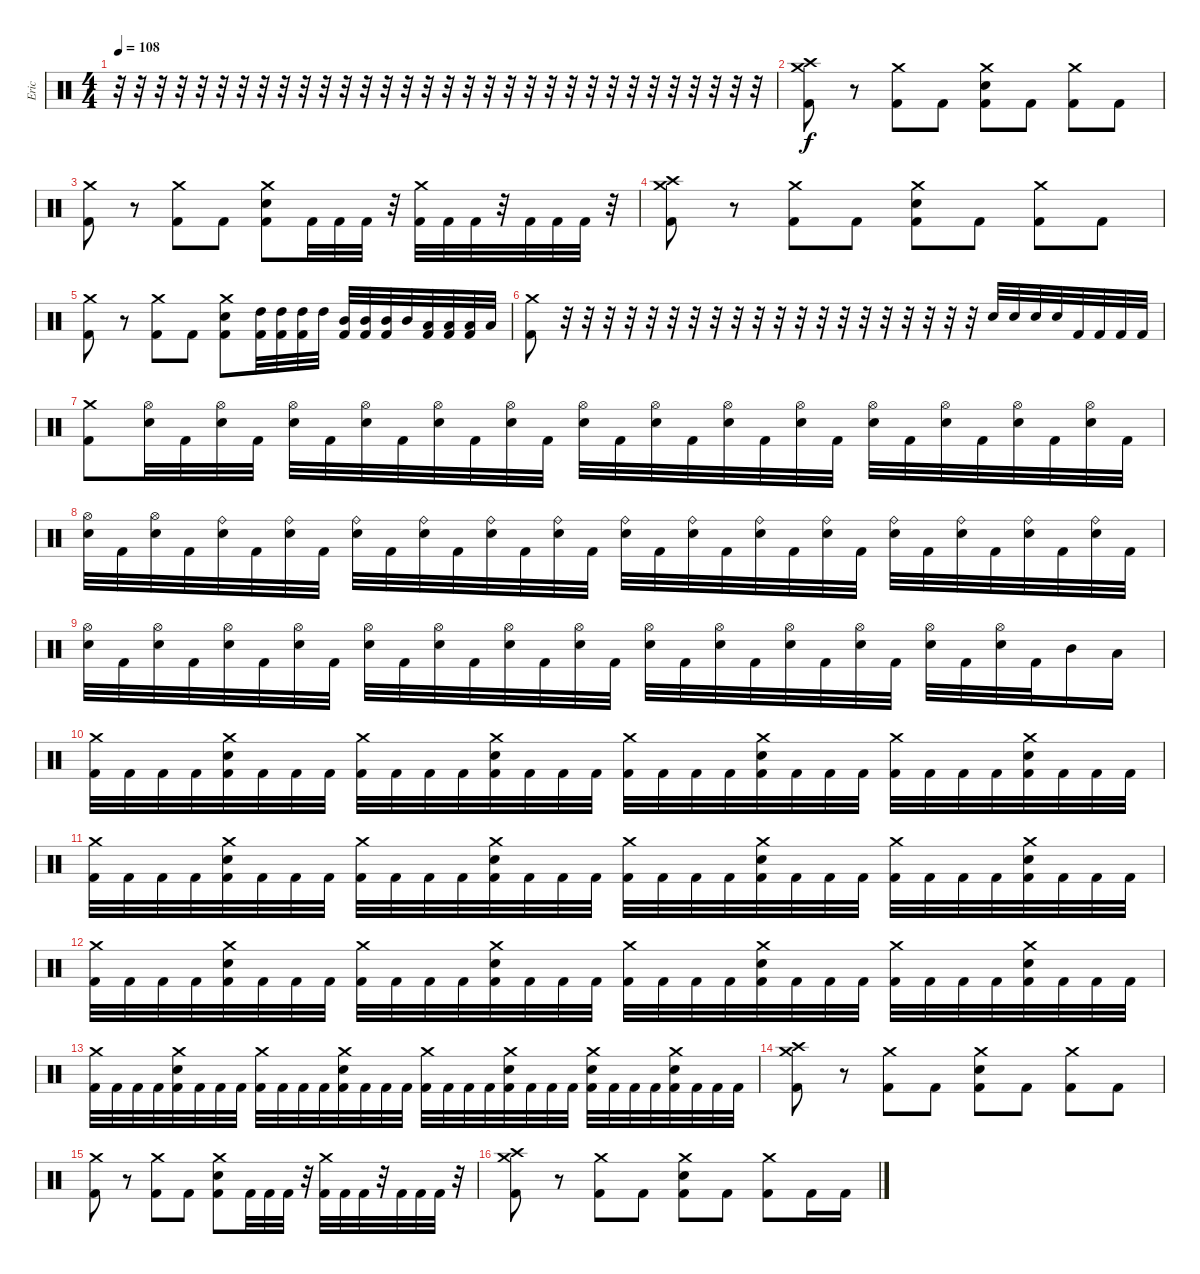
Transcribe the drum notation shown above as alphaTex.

\track ("Eric" "Eric") {instrument percussion}
\staff {score}
\articulation defaults
\ts (4 4)
\tempo 108
\clef neutral
\ks c
r.32{dy f} r.32 r.32 r.32 r.32 r.32 r.32 r.32 r.32 r.32 r.32 r.32 r.32 r.32 r.32 r.32 r.32 r.32 r.32 r.32 r.32 r.32 r.32 r.32 r.32 r.32 r.32 r.32 r.32 r.32 r.32 r.32 |
("Crash medium (hit)" "Crash high (hit)" "Kick (hit) 2").8 r.8 ("Crash medium (hit)" "Kick (hit) 2").8 "Kick (hit) 2".8 ("Crash medium (hit)" "Electric Snare (hit)" "Kick (hit) 2").8 "Kick (hit) 2".8 ("Crash medium (hit)" "Kick (hit) 2").8 "Kick (hit) 2".8 |
("Crash medium (hit)" "Kick (hit) 2").8 r.8 ("Crash medium (hit)" "Kick (hit) 2").8 "Kick (hit) 2".8 ("Crash medium (hit)" "Electric Snare (hit)" "Kick (hit) 2").8 "Kick (hit) 2".32 "Kick (hit) 2".32 "Kick (hit) 2".32 r.32 ("Crash medium (hit)" "Kick (hit) 2").32 "Kick (hit) 2".32 "Kick (hit) 2".32 r.32 "Kick (hit) 2".32 "Kick (hit) 2".32 "Kick (hit) 2".32 r.32 |
("Crash medium (hit)" "Crash high (hit)" "Kick (hit) 2").8 r.8 ("Crash medium (hit)" "Kick (hit) 2").8 "Kick (hit) 2".8 ("Crash medium (hit)" "Electric Snare (hit)" "Kick (hit) 2").8 "Kick (hit) 2".8 ("Crash medium (hit)" "Kick (hit) 2").8 "Kick (hit) 2".8 |
("Crash medium (hit)" "Kick (hit) 2").8 r.8 ("Crash medium (hit)" "Kick (hit) 2").8 "Kick (hit) 2".8 ("Crash medium (hit)" "Electric Snare (hit)" "Kick (hit) 2").8 ("High Tom (hit)" "Kick (hit) 2").32 ("High Tom (hit)" "Kick (hit) 2").32 ("High Tom (hit)" "Kick (hit) 2").32 "High Tom (hit)".32 ("Mid Tom (hit)" "Kick (hit) 2").32 ("Mid Tom (hit)" "Kick (hit) 2").32 ("Mid Tom (hit)" "Kick (hit) 2").32 "Mid Tom (hit)".32 ("Low Tom (hit)" "Kick (hit) 2").32 ("Low Tom (hit)" "Kick (hit) 2").32 ("Low Tom (hit)" "Kick (hit) 2").32 "Low Tom (hit)".32 |
("Crash medium (hit)" "Kick (hit) 2").8 r.32 r.32 r.32 r.32 r.32 r.32 r.32 r.32 r.32 r.32 r.32 r.32 r.32 r.32 r.32 r.32 r.32 r.32 r.32 r.32 "Electric Snare (hit)".32 "Electric Snare (hit)".32 "Electric Snare (hit)".32 "Electric Snare (hit)".32 "Kick (hit) 2".32 "Kick (hit) 2".32 "Kick (hit) 2".32 "Kick (hit) 2".32 |
("Crash medium (hit)" "Kick (hit) 2").8 ("Hi-Hat (open)" "Electric Snare (hit)").32 "Kick (hit) 2".32 ("Hi-Hat (open)" "Electric Snare (hit)").32 "Kick (hit) 2".32 ("Hi-Hat (open)" "Electric Snare (hit)").32 "Kick (hit) 2".32 ("Hi-Hat (open)" "Electric Snare (hit)").32 "Kick (hit) 2".32 ("Hi-Hat (open)" "Electric Snare (hit)").32 "Kick (hit) 2".32 ("Hi-Hat (open)" "Electric Snare (hit)").32 "Kick (hit) 2".32 ("Hi-Hat (open)" "Electric Snare (hit)").32 "Kick (hit) 2".32 ("Hi-Hat (open)" "Electric Snare (hit)").32 "Kick (hit) 2".32 ("Hi-Hat (open)" "Electric Snare (hit)").32 "Kick (hit) 2".32 ("Hi-Hat (open)" "Electric Snare (hit)").32 "Kick (hit) 2".32 ("Hi-Hat (open)" "Electric Snare (hit)").32 "Kick (hit) 2".32 ("Hi-Hat (open)" "Electric Snare (hit)").32 "Kick (hit) 2".32 ("Hi-Hat (open)" "Electric Snare (hit)").32 "Kick (hit) 2".32 ("Hi-Hat (open)" "Electric Snare (hit)").32 "Kick (hit) 2".32 |
("Hi-Hat (open)" "Electric Snare (hit)").32 "Kick (hit) 2".32 ("Hi-Hat (open)" "Electric Snare (hit)").32 "Kick (hit) 2".32 ("Ride (bell)" "Electric Snare (hit)").32 "Kick (hit) 2".32 ("Ride (bell)" "Electric Snare (hit)").32 "Kick (hit) 2".32 ("Ride (bell)" "Electric Snare (hit)").32 "Kick (hit) 2".32 ("Ride (bell)" "Electric Snare (hit)").32 "Kick (hit) 2".32 ("Ride (bell)" "Electric Snare (hit)").32 "Kick (hit) 2".32 ("Ride (bell)" "Electric Snare (hit)").32 "Kick (hit) 2".32 ("Ride (bell)" "Electric Snare (hit)").32 "Kick (hit) 2".32 ("Ride (bell)" "Electric Snare (hit)").32 "Kick (hit) 2".32 ("Ride (bell)" "Electric Snare (hit)").32 "Kick (hit) 2".32 ("Ride (bell)" "Electric Snare (hit)").32 "Kick (hit) 2".32 ("Ride (bell)" "Electric Snare (hit)").32 "Kick (hit) 2".32 ("Ride (bell)" "Electric Snare (hit)").32 "Kick (hit) 2".32 ("Ride (bell)" "Electric Snare (hit)").32 "Kick (hit) 2".32 ("Ride (bell)" "Electric Snare (hit)").32 "Kick (hit) 2".32 |
("Hi-Hat (open)" "Electric Snare (hit)").32 "Kick (hit) 2".32 ("Hi-Hat (open)" "Electric Snare (hit)").32 "Kick (hit) 2".32 ("Hi-Hat (open)" "Electric Snare (hit)").32 "Kick (hit) 2".32 ("Hi-Hat (open)" "Electric Snare (hit)").32 "Kick (hit) 2".32 ("Hi-Hat (open)" "Electric Snare (hit)").32 "Kick (hit) 2".32 ("Hi-Hat (open)" "Electric Snare (hit)").32 "Kick (hit) 2".32 ("Hi-Hat (open)" "Electric Snare (hit)").32 "Kick (hit) 2".32 ("Hi-Hat (open)" "Electric Snare (hit)").32 "Kick (hit) 2".32 ("Hi-Hat (open)" "Electric Snare (hit)").32 "Kick (hit) 2".32 ("Hi-Hat (open)" "Electric Snare (hit)").32 "Kick (hit) 2".32 ("Hi-Hat (open)" "Electric Snare (hit)").32 "Kick (hit) 2".32 ("Hi-Hat (open)" "Electric Snare (hit)").32 "Kick (hit) 2".32 ("Hi-Hat (open)" "Electric Snare (hit)").32 "Kick (hit) 2".32 ("Hi-Hat (open)" "Electric Snare (hit)").32 "Kick (hit) 2".32 "Mid Tom (hit)".16 "Low Tom (hit)".16 |
("Crash medium (hit)" "Kick (hit) 2").32 "Kick (hit) 2".32 "Kick (hit) 2".32 "Kick (hit) 2".32 ("Crash medium (hit)" "Electric Snare (hit)" "Kick (hit) 2").32 "Kick (hit) 2".32 "Kick (hit) 2".32 "Kick (hit) 2".32 ("Crash medium (hit)" "Kick (hit) 2").32 "Kick (hit) 2".32 "Kick (hit) 2".32 "Kick (hit) 2".32 ("Crash medium (hit)" "Electric Snare (hit)" "Kick (hit) 2").32 "Kick (hit) 2".32 "Kick (hit) 2".32 "Kick (hit) 2".32 ("Crash medium (hit)" "Kick (hit) 2").32 "Kick (hit) 2".32 "Kick (hit) 2".32 "Kick (hit) 2".32 ("Crash medium (hit)" "Electric Snare (hit)" "Kick (hit) 2").32 "Kick (hit) 2".32 "Kick (hit) 2".32 "Kick (hit) 2".32 ("Crash medium (hit)" "Kick (hit) 2").32 "Kick (hit) 2".32 "Kick (hit) 2".32 "Kick (hit) 2".32 ("Crash medium (hit)" "Electric Snare (hit)" "Kick (hit) 2").32 "Kick (hit) 2".32 "Kick (hit) 2".32 "Kick (hit) 2".32 |
("Crash medium (hit)" "Kick (hit) 2").32 "Kick (hit) 2".32 "Kick (hit) 2".32 "Kick (hit) 2".32 ("Crash medium (hit)" "Electric Snare (hit)" "Kick (hit) 2").32 "Kick (hit) 2".32 "Kick (hit) 2".32 "Kick (hit) 2".32 ("Crash medium (hit)" "Kick (hit) 2").32 "Kick (hit) 2".32 "Kick (hit) 2".32 "Kick (hit) 2".32 ("Crash medium (hit)" "Electric Snare (hit)" "Kick (hit) 2").32 "Kick (hit) 2".32 "Kick (hit) 2".32 "Kick (hit) 2".32 ("Crash medium (hit)" "Kick (hit) 2").32 "Kick (hit) 2".32 "Kick (hit) 2".32 "Kick (hit) 2".32 ("Crash medium (hit)" "Electric Snare (hit)" "Kick (hit) 2").32 "Kick (hit) 2".32 "Kick (hit) 2".32 "Kick (hit) 2".32 ("Crash medium (hit)" "Kick (hit) 2").32 "Kick (hit) 2".32 "Kick (hit) 2".32 "Kick (hit) 2".32 ("Crash medium (hit)" "Electric Snare (hit)" "Kick (hit) 2").32 "Kick (hit) 2".32 "Kick (hit) 2".32 "Kick (hit) 2".32 |
("Crash medium (hit)" "Kick (hit) 2").32 "Kick (hit) 2".32 "Kick (hit) 2".32 "Kick (hit) 2".32 ("Crash medium (hit)" "Electric Snare (hit)" "Kick (hit) 2").32 "Kick (hit) 2".32 "Kick (hit) 2".32 "Kick (hit) 2".32 ("Crash medium (hit)" "Kick (hit) 2").32 "Kick (hit) 2".32 "Kick (hit) 2".32 "Kick (hit) 2".32 ("Crash medium (hit)" "Electric Snare (hit)" "Kick (hit) 2").32 "Kick (hit) 2".32 "Kick (hit) 2".32 "Kick (hit) 2".32 ("Crash medium (hit)" "Kick (hit) 2").32 "Kick (hit) 2".32 "Kick (hit) 2".32 "Kick (hit) 2".32 ("Crash medium (hit)" "Electric Snare (hit)" "Kick (hit) 2").32 "Kick (hit) 2".32 "Kick (hit) 2".32 "Kick (hit) 2".32 ("Crash medium (hit)" "Kick (hit) 2").32 "Kick (hit) 2".32 "Kick (hit) 2".32 "Kick (hit) 2".32 ("Crash medium (hit)" "Electric Snare (hit)" "Kick (hit) 2").32 "Kick (hit) 2".32 "Kick (hit) 2".32 "Kick (hit) 2".32 |
("Crash medium (hit)" "Kick (hit) 2").32 "Kick (hit) 2".32 "Kick (hit) 2".32 "Kick (hit) 2".32 ("Crash medium (hit)" "Electric Snare (hit)" "Kick (hit) 2").32 "Kick (hit) 2".32 "Kick (hit) 2".32 "Kick (hit) 2".32 ("Crash medium (hit)" "Kick (hit) 2").32 "Kick (hit) 2".32 "Kick (hit) 2".32 "Kick (hit) 2".32 ("Crash medium (hit)" "Electric Snare (hit)" "Kick (hit) 2").32 "Kick (hit) 2".32 "Kick (hit) 2".32 "Kick (hit) 2".32 ("Crash medium (hit)" "Kick (hit) 2").32 "Kick (hit) 2".32 "Kick (hit) 2".32 "Kick (hit) 2".32 ("Crash medium (hit)" "Electric Snare (hit)" "Kick (hit) 2").32 "Kick (hit) 2".32 "Kick (hit) 2".32 "Kick (hit) 2".32 ("Crash medium (hit)" "Electric Snare (hit)" "Kick (hit) 2").32 "Kick (hit) 2".32 "Kick (hit) 2".32 "Kick (hit) 2".32 ("Crash medium (hit)" "Electric Snare (hit)" "Kick (hit) 2").32 "Kick (hit) 2".32 "Kick (hit) 2".32 "Kick (hit) 2".32 |
("Crash medium (hit)" "Crash high (hit)" "Kick (hit) 2").8 r.8 ("Crash medium (hit)" "Kick (hit) 2").8 "Kick (hit) 2".8 ("Crash medium (hit)" "Electric Snare (hit)" "Kick (hit) 2").8 "Kick (hit) 2".8 ("Crash medium (hit)" "Kick (hit) 2").8 "Kick (hit) 2".8 |
("Crash medium (hit)" "Kick (hit) 2").8 r.8 ("Crash medium (hit)" "Kick (hit) 2").8 "Kick (hit) 2".8 ("Crash medium (hit)" "Electric Snare (hit)" "Kick (hit) 2").8 "Kick (hit) 2".32 "Kick (hit) 2".32 "Kick (hit) 2".32 r.32 ("Crash medium (hit)" "Kick (hit) 2").32 "Kick (hit) 2".32 "Kick (hit) 2".32 r.32 "Kick (hit) 2".32 "Kick (hit) 2".32 "Kick (hit) 2".32 r.32 |
("Crash medium (hit)" "Crash high (hit)" "Kick (hit) 2").8 r.8 ("Crash medium (hit)" "Kick (hit) 2").8 "Kick (hit) 2".8 ("Crash medium (hit)" "Electric Snare (hit)" "Kick (hit) 2").8 "Kick (hit) 2".8 ("Crash medium (hit)" "Kick (hit) 2").8 "Kick (hit) 2".16 "Kick (hit) 2".16
